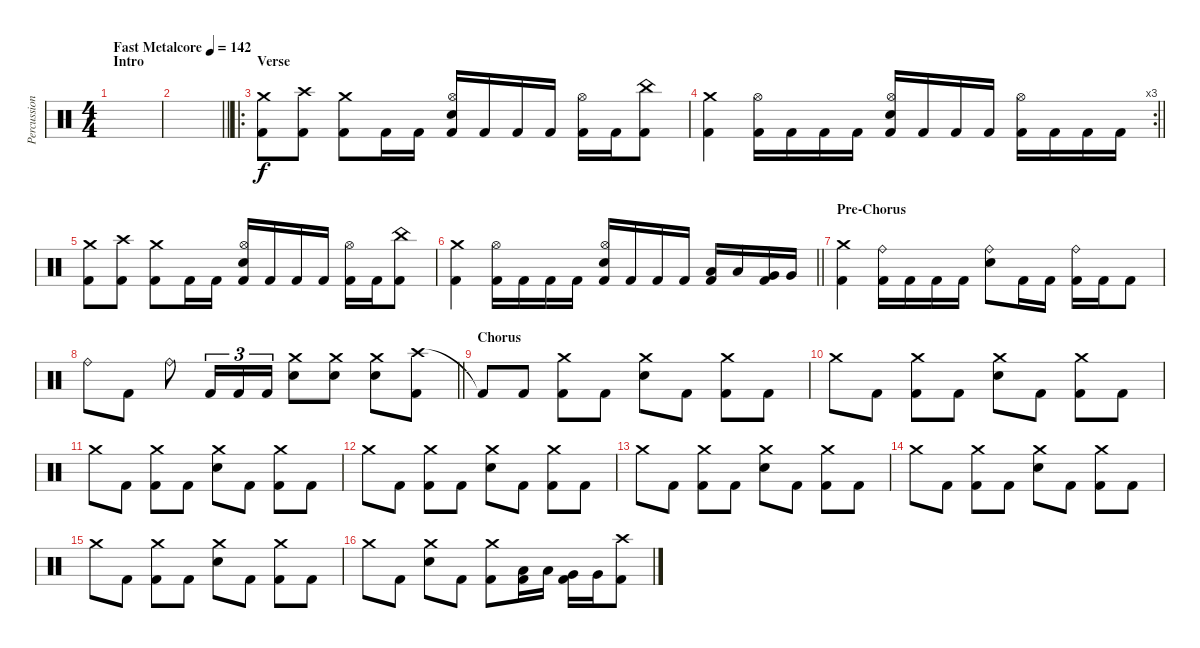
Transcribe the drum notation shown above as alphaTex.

\track ("Percussion" "Percussion") {instrument percussion}
\staff {score}
\articulation defaults
\ts (4 4)
\section ("" "Intro")
\tempo (142 "Fast Metalcore")
\clef neutral
\ks c
|
\barLineRight lightlight
|
\ro
\section ("" "Verse")
("Crash medium (hit)" "Kick (hit) 2").8 ("Crash high (hit)" "Kick (hit) 2").8 ("Crash medium (hit)" "Kick (hit) 2").8 "Kick (hit) 2".16 "Kick (hit) 2".16 ("Hi-Hat (open)" "Electric Snare (hit)" "Kick (hit) 2").16 "Kick (hit) 2".16 "Kick (hit) 2".16 "Kick (hit) 2".16 ("Hi-Hat (open)" "Kick (hit) 2").16 "Kick (hit) 2".16 ("China (hit)" "Kick (hit) 2").8 |
\rc 3
\barLineRight lightlight
("Crash medium (hit)" "Kick (hit) 2").4 ("Hi-Hat (open)" "Kick (hit) 2").16 "Kick (hit) 2".16 "Kick (hit) 2".16 "Kick (hit) 2".16 ("Hi-Hat (open)" "Electric Snare (hit)" "Kick (hit) 2").16 "Kick (hit) 2".16 "Kick (hit) 2".16 "Kick (hit) 2".16 ("Hi-Hat (open)" "Kick (hit) 2").16 "Kick (hit) 2".16 "Kick (hit) 2".16 "Kick (hit) 2".16 |
("Crash medium (hit)" "Kick (hit) 2").8 ("Crash high (hit)" "Kick (hit) 2").8 ("Crash medium (hit)" "Kick (hit) 2").8 "Kick (hit) 2".16 "Kick (hit) 2".16 ("Hi-Hat (open)" "Electric Snare (hit)" "Kick (hit) 2").16 "Kick (hit) 2".16 "Kick (hit) 2".16 "Kick (hit) 2".16 ("Hi-Hat (open)" "Kick (hit) 2").16 "Kick (hit) 2".16 ("China (hit)" "Kick (hit) 2").8 |
\barLineRight lightlight
("Crash medium (hit)" "Kick (hit) 2").4 ("Hi-Hat (open)" "Kick (hit) 2").16 "Kick (hit) 2".16 "Kick (hit) 2".16 "Kick (hit) 2".16 ("Hi-Hat (open)" "Electric Snare (hit)" "Kick (hit) 2").16 "Kick (hit) 2".16 "Kick (hit) 2".16 "Kick (hit) 2".16 ("Low Tom (hit)" "Kick (hit) 2").16 "Low Tom (hit)".16 ("Very Low Tom (hit)" "Kick (hit) 2").16 "Very Low Tom (hit)".16 |
\section ("" "Pre-Chorus")
("Crash medium (hit)" "Kick (hit) 2").4 ("Ride (bell)" "Kick (hit) 2").16 "Kick (hit) 2".16 "Kick (hit) 2".16 "Kick (hit) 2".16 ("Ride (bell)" "Electric Snare (hit)").8 "Kick (hit) 2".16 "Kick (hit) 2".16 ("Ride (bell)" "Kick (hit) 2").16 "Kick (hit) 2".16 "Kick (hit) 2".8 |
\barLineRight lightlight "Ride (bell)".8 "Kick (hit) 2".8 "Ride (bell)".8 "Kick (hit) 2".16{tu (3 2)} "Kick (hit) 2".16{tu (3 2)} "Kick (hit) 2".16{tu (3 2)}
("Crash medium (hit)" "Electric Snare (hit)").8 ("Crash medium (hit)" "Electric Snare (hit)").8 ("Crash medium (hit)" "Electric Snare (hit)").8 ("Crash high (hit)" "Kick (hit) 2").8 |
\section ("" "Chorus")
"Kick (hit) 2"{t}.8 "Kick (hit) 2".8 ("Crash medium (hit)" "Kick (hit) 2").8 "Kick (hit) 2".8 ("Crash medium (hit)" "Electric Snare (hit)").8 "Kick (hit) 2".8 ("Crash medium (hit)" "Kick (hit) 2").8 "Kick (hit) 2".8 |
"Crash medium (hit)".8 "Kick (hit) 2".8 ("Crash medium (hit)" "Kick (hit) 2").8 "Kick (hit) 2".8 ("Crash medium (hit)" "Electric Snare (hit)").8 "Kick (hit) 2".8 ("Crash medium (hit)" "Kick (hit) 2").8 "Kick (hit) 2".8 |
"Crash medium (hit)".8 "Kick (hit) 2".8 ("Crash medium (hit)" "Kick (hit) 2").8 "Kick (hit) 2".8 ("Crash medium (hit)" "Electric Snare (hit)").8 "Kick (hit) 2".8 ("Crash medium (hit)" "Kick (hit) 2").8 "Kick (hit) 2".8 |
"Crash medium (hit)".8 "Kick (hit) 2".8 ("Crash medium (hit)" "Kick (hit) 2").8 "Kick (hit) 2".8 ("Crash medium (hit)" "Electric Snare (hit)").8 "Kick (hit) 2".8 ("Crash medium (hit)" "Kick (hit) 2").8 "Kick (hit) 2".8 |
"Crash medium (hit)".8 "Kick (hit) 2".8 ("Crash medium (hit)" "Kick (hit) 2").8 "Kick (hit) 2".8 ("Crash medium (hit)" "Electric Snare (hit)").8 "Kick (hit) 2".8 ("Crash medium (hit)" "Kick (hit) 2").8 "Kick (hit) 2".8 |
"Crash medium (hit)".8 "Kick (hit) 2".8 ("Crash medium (hit)" "Kick (hit) 2").8 "Kick (hit) 2".8 ("Crash medium (hit)" "Electric Snare (hit)").8 "Kick (hit) 2".8 ("Crash medium (hit)" "Kick (hit) 2").8 "Kick (hit) 2".8 |
"Crash medium (hit)".8 "Kick (hit) 2".8 ("Crash medium (hit)" "Kick (hit) 2").8 "Kick (hit) 2".8 ("Crash medium (hit)" "Electric Snare (hit)").8 "Kick (hit) 2".8 ("Crash medium (hit)" "Kick (hit) 2").8 "Kick (hit) 2".8 |
"Crash medium (hit)".8 "Kick (hit) 2".8 ("Crash medium (hit)" "Electric Snare (hit)").8 "Kick (hit) 2".8 ("Crash medium (hit)" "Kick (hit) 2").8 ("Low Tom (hit)" "Kick (hit) 2").16 "Low Tom (hit)".16 ("Very Low Tom (hit)" "Kick (hit) 2").16 "Very Low Tom (hit)".16 ("Crash high (hit)" "Kick (hit) 2").8
